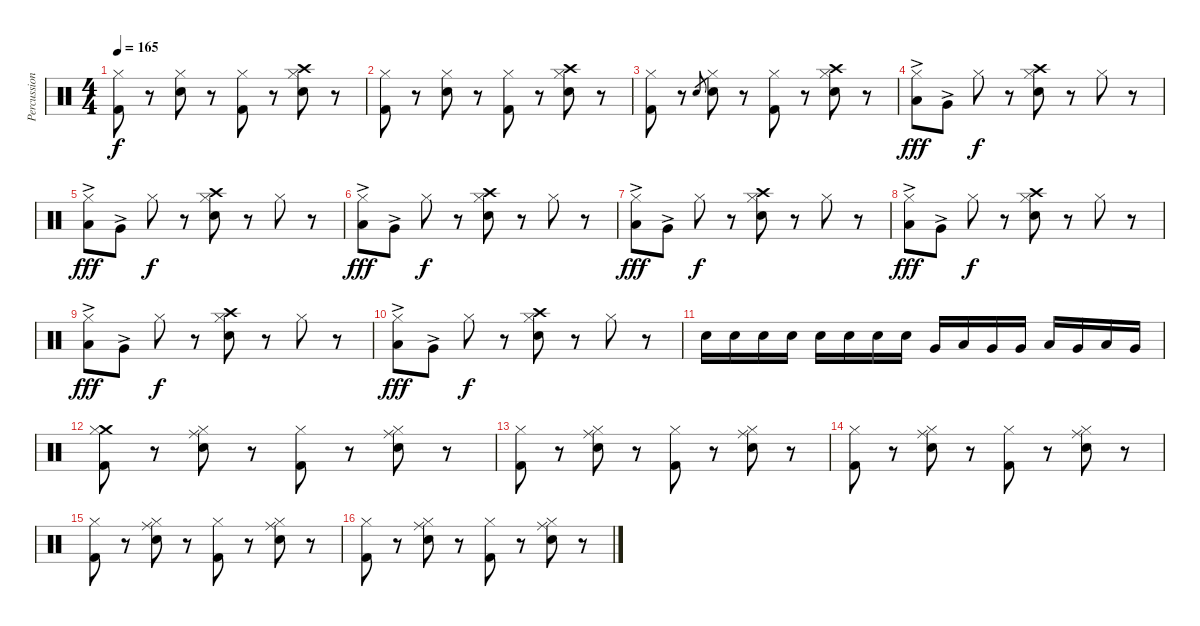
\track ("Percussions" "Percussion") {instrument percussion}
\staff {score}
\articulation defaults
\ts (4 4)
\tempo 165
\clef neutral
\ks c
("Kick (hit) 2" "Hi-Hat (closed)").8{dy f} r.8 ("Electric Snare (hit)" "Hi-Hat (closed)").8 r.8 ("Kick (hit) 2" "Hi-Hat (closed)").8 r.8 ("Electric Snare (hit)" "Crash high (hit)" "Hi-Hat (closed)").8 r.8 |
("Kick (hit) 2" "Hi-Hat (closed)").8 r.8 ("Electric Snare (hit)" "Hi-Hat (closed)").8 r.8 ("Kick (hit) 2" "Hi-Hat (closed)").8 r.8 ("Electric Snare (hit)" "Crash high (hit)" "Hi-Hat (closed)").8 r.8 |
("Kick (hit) 2" "Hi-Hat (closed)").8 r.8 "Electric Snare (hit)".8{gr} ("Electric Snare (hit)" "Hi-Hat (closed)").8 r.8 ("Kick (hit) 2" "Hi-Hat (closed)").8 r.8 ("Electric Snare (hit)" "Crash high (hit)" "Hi-Hat (closed)").8 r.8 |
("Low Tom (hit)"{ac} "Hi-Hat (closed)").8{dy fff} "Very Low Tom (hit)"{ac}.8 "Hi-Hat (closed)".8{dy f} r.8 ("Crash high (hit)" "Electric Snare (hit)" "Hi-Hat (closed)").8 r.8 "Hi-Hat (closed)".8 r.8 |
("Low Tom (hit)"{ac} "Hi-Hat (closed)").8{dy fff} "Very Low Tom (hit)"{ac}.8 "Hi-Hat (closed)".8{dy f} r.8 ("Crash high (hit)" "Electric Snare (hit)" "Hi-Hat (closed)").8 r.8 "Hi-Hat (closed)".8 r.8 |
("Low Tom (hit)"{ac} "Hi-Hat (closed)").8{dy fff} "Very Low Tom (hit)"{ac}.8 "Hi-Hat (closed)".8{dy f} r.8 ("Crash high (hit)" "Electric Snare (hit)" "Hi-Hat (closed)").8 r.8 "Hi-Hat (closed)".8 r.8 |
("Low Tom (hit)"{ac} "Hi-Hat (closed)").8{dy fff} "Very Low Tom (hit)"{ac}.8 "Hi-Hat (closed)".8{dy f} r.8 ("Crash high (hit)" "Electric Snare (hit)" "Hi-Hat (closed)").8 r.8 "Hi-Hat (closed)".8 r.8 |
("Low Tom (hit)"{ac} "Hi-Hat (closed)").8{dy fff} "Very Low Tom (hit)"{ac}.8 "Hi-Hat (closed)".8{dy f} r.8 ("Crash high (hit)" "Electric Snare (hit)" "Hi-Hat (closed)").8 r.8 "Hi-Hat (closed)".8 r.8 |
("Low Tom (hit)"{ac} "Hi-Hat (closed)").8{dy fff} "Very Low Tom (hit)"{ac}.8 "Hi-Hat (closed)".8{dy f} r.8 ("Crash high (hit)" "Electric Snare (hit)" "Hi-Hat (closed)").8 r.8 "Hi-Hat (closed)".8 r.8 |
("Low Tom (hit)"{ac} "Hi-Hat (closed)").8{dy fff} "Very Low Tom (hit)"{ac}.8 "Hi-Hat (closed)".8{dy f} r.8 ("Crash high (hit)" "Electric Snare (hit)" "Hi-Hat (closed)").8 r.8 "Hi-Hat (closed)".8 r.8 |
"Electric Snare (hit)".16 "Electric Snare (hit)".16 "Electric Snare (hit)".16 "Electric Snare (hit)".16 "Electric Snare (hit)".16 "Electric Snare (hit)".16 "Electric Snare (hit)".16 "Electric Snare (hit)".16 "Very Low Tom (hit)".16 "Low Tom (hit)".16 "Very Low Tom (hit)".16 "Very Low Tom (hit)".16 "Low Tom (hit)".16 "Very Low Tom (hit)".16 "Low Tom (hit)".16 "Very Low Tom (hit)".16 |
("Kick (hit) 2" "Crash medium (hit)" "Hi-Hat (closed)").8 r.8 ("Electric Snare (hit)" "Ride (middle)" "Hi-Hat (closed)").8 r.8 ("Kick (hit) 2" "Hi-Hat (closed)").8 r.8 ("Electric Snare (hit)" "Ride (middle)" "Hi-Hat (closed)").8 r.8 |
("Kick (hit) 2" "Hi-Hat (closed)").8 r.8 ("Electric Snare (hit)" "Ride (middle)" "Hi-Hat (closed)").8 r.8 ("Kick (hit) 2" "Hi-Hat (closed)").8 r.8 ("Electric Snare (hit)" "Ride (middle)" "Hi-Hat (closed)").8 r.8 |
("Kick (hit) 2" "Hi-Hat (closed)").8 r.8 ("Electric Snare (hit)" "Ride (middle)" "Hi-Hat (closed)").8 r.8 ("Kick (hit) 2" "Hi-Hat (closed)").8 r.8 ("Electric Snare (hit)" "Ride (middle)" "Hi-Hat (closed)").8 r.8 |
("Kick (hit) 2" "Hi-Hat (closed)").8 r.8 ("Electric Snare (hit)" "Ride (middle)" "Hi-Hat (closed)").8 r.8 ("Kick (hit) 2" "Hi-Hat (closed)").8 r.8 ("Electric Snare (hit)" "Ride (middle)" "Hi-Hat (closed)").8 r.8 |
("Kick (hit) 2" "Hi-Hat (closed)").8 r.8 ("Electric Snare (hit)" "Ride (middle)" "Hi-Hat (closed)").8 r.8 ("Kick (hit) 2" "Hi-Hat (closed)").8 r.8 ("Electric Snare (hit)" "Ride (middle)" "Hi-Hat (closed)").8 r.8
